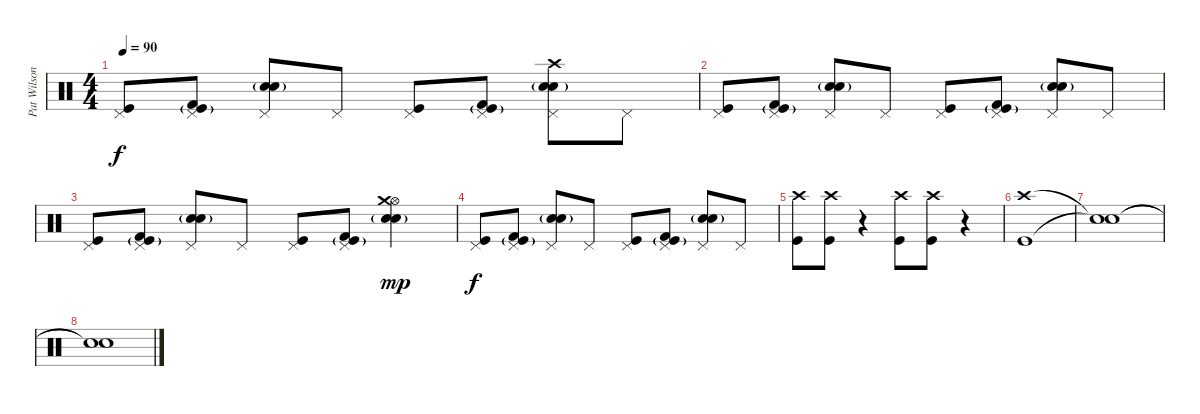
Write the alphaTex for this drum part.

\track ("Pat Wilson" "Pat Wilson") {instrument percussion}
\staff {score}
\articulation defaults
\ts (4 4)
\tempo 90
\clef neutral
\ks c
("Pedal Hi-Hat (hit)" "Kick (hit)").8{dy f} ("Pedal Hi-Hat (hit)" "Kick (hit)"{g} "Kick (hit) 2").8 ("Pedal Hi-Hat (hit)" "Hand Clap (hit)"{g} "Electric Snare (hit)").8 "Pedal Hi-Hat (hit)".8 ("Pedal Hi-Hat (hit)" "Kick (hit)").8 ("Pedal Hi-Hat (hit)" "Kick (hit)"{g} "Kick (hit) 2").8 ("Crash high (hit)" "Pedal Hi-Hat (hit)" "Hand Clap (hit)"{g} "Electric Snare (hit)").8 "Pedal Hi-Hat (hit)".8 |
("Pedal Hi-Hat (hit)" "Kick (hit)").8 ("Pedal Hi-Hat (hit)" "Kick (hit)"{g} "Kick (hit) 2").8 ("Pedal Hi-Hat (hit)" "Hand Clap (hit)"{g} "Electric Snare (hit)").8 "Pedal Hi-Hat (hit)".8 ("Pedal Hi-Hat (hit)" "Kick (hit)").8 ("Pedal Hi-Hat (hit)" "Kick (hit)"{g} "Kick (hit) 2").8 ("Pedal Hi-Hat (hit)" "Hand Clap (hit)"{g} "Electric Snare (hit)").8 "Pedal Hi-Hat (hit)".8 |
("Pedal Hi-Hat (hit)" "Kick (hit)").8 ("Pedal Hi-Hat (hit)" "Kick (hit)"{g} "Kick (hit) 2").8 ("Pedal Hi-Hat (hit)" "Hand Clap (hit)"{g} "Electric Snare (hit)").8 "Pedal Hi-Hat (hit)".8 ("Pedal Hi-Hat (hit)" "Kick (hit)").8 ("Pedal Hi-Hat (hit)" "Kick (hit)"{g} "Kick (hit) 2").8 ("Hi-Hat (open)" "Crash medium (hit)" "Hand Clap (hit)"{g} "Electric Snare (hit)").4{dy mp} |
("Pedal Hi-Hat (hit)" "Kick (hit)").8{dy f} ("Pedal Hi-Hat (hit)" "Kick (hit)"{g} "Kick (hit) 2").8 ("Pedal Hi-Hat (hit)" "Hand Clap (hit)"{g} "Electric Snare (hit)").8 "Pedal Hi-Hat (hit)".8 ("Pedal Hi-Hat (hit)" "Kick (hit)").8 ("Pedal Hi-Hat (hit)" "Kick (hit)"{g} "Kick (hit) 2").8 ("Pedal Hi-Hat (hit)" "Hand Clap (hit)"{g} "Electric Snare (hit)").8 "Pedal Hi-Hat (hit)".8 |
("Crash high (hit)" "Kick (hit)").8 ("Crash high (hit)" "Kick (hit)").8 r.4 ("Crash high (hit)" "Kick (hit)").8 ("Crash high (hit)" "Kick (hit)").8 r.4 |
("Crash high (hit)" "Kick (hit)").1 |
("Snare (hit)"{t} "Snare (hit)"{t}).1 |
("Snare (hit)"{t} "Snare (hit)"{t}).1
